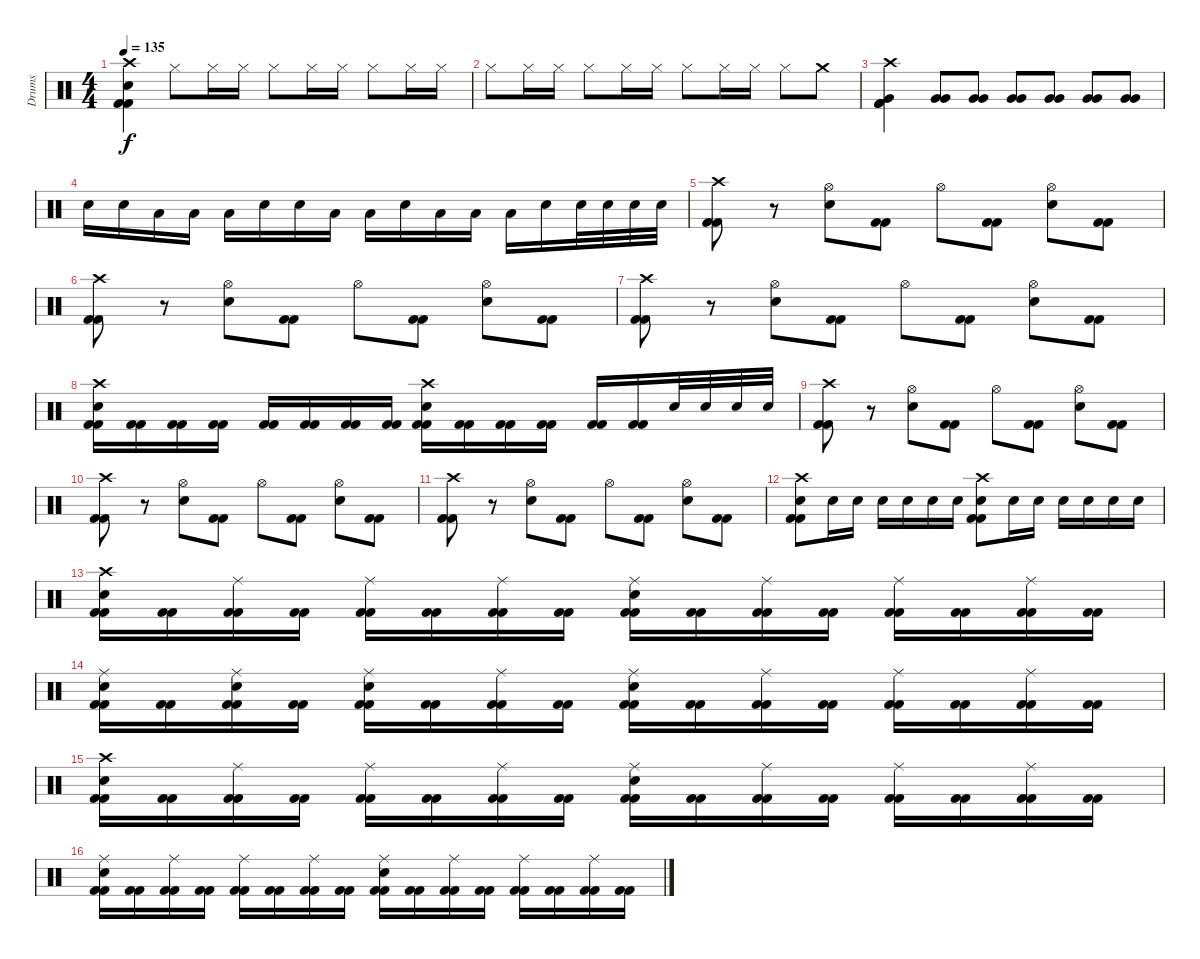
\track ("Drums" "Drums") {instrument percussion}
\staff {score}
\articulation defaults
\ts (4 4)
\tempo 135
\clef neutral
\ks c
("Crash high (hit)" "Electric Snare (hit)" "Kick (hit) 2" "Kick (hit) 2").4{dy f} "Hi-Hat (closed)".8 "Hi-Hat (closed)".16 "Hi-Hat (closed)".16 "Hi-Hat (closed)".8 "Hi-Hat (closed)".16 "Hi-Hat (closed)".16 "Hi-Hat (closed)".8 "Hi-Hat (closed)".16 "Hi-Hat (closed)".16 |
"Hi-Hat (closed)".8 "Hi-Hat (closed)".16 "Hi-Hat (closed)".16 "Hi-Hat (closed)".8 "Hi-Hat (closed)".16 "Hi-Hat (closed)".16 "Hi-Hat (closed)".8 "Hi-Hat (closed)".16 "Hi-Hat (closed)".16 "Hi-Hat (closed)".8 "Crash medium (hit)".8 |
("Crash high (hit)" "Very Low Tom (hit)" "Kick (hit) 2" "Kick (hit) 2").4 ("Very Low Tom (hit)" "Very Low Tom (hit)").8 ("Very Low Tom (hit)" "Very Low Tom (hit)").8 ("Very Low Tom (hit)" "Very Low Tom (hit)").8 ("Very Low Tom (hit)" "Very Low Tom (hit)").8 ("Very Low Tom (hit)" "Very Low Tom (hit)").8 ("Very Low Tom (hit)" "Very Low Tom (hit)").8 |
"Electric Snare (hit)".16 "Electric Snare (hit)".16 "Low Floor Tom (hit)".16 "Low Floor Tom (hit)".16 "Low Floor Tom (hit)".16 "Electric Snare (hit)".16 "Electric Snare (hit)".16 "Low Floor Tom (hit)".16 "Low Floor Tom (hit)".16 "Electric Snare (hit)".16 "Low Floor Tom (hit)".16 "Low Floor Tom (hit)".16 "Low Floor Tom (hit)".16 "Electric Snare (hit)".16 "Electric Snare (hit)".32 "Electric Snare (hit)".32 "Electric Snare (hit)".32 "Electric Snare (hit)".32 |
("Crash high (hit)" "Kick (hit) 2" "Kick (hit) 2").8 r.8 ("Hi-Hat (open)" "Electric Snare (hit)").8 ("Kick (hit) 2" "Kick (hit) 2").8 "Hi-Hat (open)".8 ("Kick (hit) 2" "Kick (hit) 2").8 ("Hi-Hat (open)" "Electric Snare (hit)").8 ("Kick (hit) 2" "Kick (hit) 2").8 |
("Crash high (hit)" "Kick (hit) 2" "Kick (hit) 2").8 r.8 ("Hi-Hat (open)" "Electric Snare (hit)").8 ("Kick (hit) 2" "Kick (hit) 2").8 "Hi-Hat (open)".8 ("Kick (hit) 2" "Kick (hit) 2").8 ("Hi-Hat (open)" "Electric Snare (hit)").8 ("Kick (hit) 2" "Kick (hit) 2").8 |
("Crash high (hit)" "Kick (hit) 2" "Kick (hit) 2").8 r.8 ("Hi-Hat (open)" "Electric Snare (hit)").8 ("Kick (hit) 2" "Kick (hit) 2").8 "Hi-Hat (open)".8 ("Kick (hit) 2" "Kick (hit) 2").8 ("Hi-Hat (open)" "Electric Snare (hit)").8 ("Kick (hit) 2" "Kick (hit) 2").8 |
("Crash high (hit)" "Electric Snare (hit)" "Kick (hit) 2" "Kick (hit) 2").16 ("Kick (hit) 2" "Kick (hit) 2").16 ("Kick (hit) 2" "Kick (hit) 2").16 ("Kick (hit) 2" "Kick (hit) 2").16 ("Kick (hit) 2" "Kick (hit) 2").16 ("Kick (hit) 2" "Kick (hit) 2").16 ("Kick (hit) 2" "Kick (hit) 2").16 ("Kick (hit) 2" "Kick (hit) 2").16 ("Crash high (hit)" "Electric Snare (hit)" "Kick (hit) 2" "Kick (hit) 2").16 ("Kick (hit) 2" "Kick (hit) 2").16 ("Kick (hit) 2" "Kick (hit) 2").16 ("Kick (hit) 2" "Kick (hit) 2").16 ("Kick (hit) 2" "Kick (hit) 2").16 ("Kick (hit) 2" "Kick (hit) 2").16 "Electric Snare (hit)".32 "Electric Snare (hit)".32 "Electric Snare (hit)".32 "Electric Snare (hit)".32 |
("Crash high (hit)" "Kick (hit) 2" "Kick (hit) 2").8 r.8 ("Hi-Hat (open)" "Electric Snare (hit)").8 ("Kick (hit) 2" "Kick (hit) 2").8 "Hi-Hat (open)".8 ("Kick (hit) 2" "Kick (hit) 2").8 ("Hi-Hat (open)" "Electric Snare (hit)").8 ("Kick (hit) 2" "Kick (hit) 2").8 |
("Crash high (hit)" "Kick (hit) 2" "Kick (hit) 2").8 r.8 ("Hi-Hat (open)" "Electric Snare (hit)").8 ("Kick (hit) 2" "Kick (hit) 2").8 "Hi-Hat (open)".8 ("Kick (hit) 2" "Kick (hit) 2").8 ("Hi-Hat (open)" "Electric Snare (hit)").8 ("Kick (hit) 2" "Kick (hit) 2").8 |
("Crash high (hit)" "Kick (hit) 2" "Kick (hit) 2").8 r.8 ("Hi-Hat (open)" "Electric Snare (hit)").8 ("Kick (hit) 2" "Kick (hit) 2").8 "Hi-Hat (open)".8 ("Kick (hit) 2" "Kick (hit) 2").8 ("Hi-Hat (open)" "Electric Snare (hit)").8 ("Kick (hit) 2" "Kick (hit) 2").8 |
("Crash high (hit)" "Kick (hit) 2" "Electric Snare (hit)" "Kick (hit) 2").8 "Electric Snare (hit)".16 "Electric Snare (hit)".16 "Electric Snare (hit)".16 "Electric Snare (hit)".16 "Electric Snare (hit)".16 "Electric Snare (hit)".16 ("Crash high (hit)" "Kick (hit) 2" "Electric Snare (hit)" "Kick (hit) 2").8 "Electric Snare (hit)".16 "Electric Snare (hit)".16 "Electric Snare (hit)".16 "Electric Snare (hit)".16 "Electric Snare (hit)".16 "Electric Snare (hit)".16 |
("Crash high (hit)" "Electric Snare (hit)" "Kick (hit) 2" "Kick (hit) 2").16 ("Kick (hit) 2" "Kick (hit) 2").16 ("Ride (middle)" "Kick (hit) 2" "Kick (hit) 2").16 ("Kick (hit) 2" "Kick (hit) 2").16 ("Ride (middle)" "Kick (hit) 2" "Kick (hit) 2").16 ("Kick (hit) 2" "Kick (hit) 2").16 ("Ride (middle)" "Kick (hit) 2" "Kick (hit) 2").16 ("Kick (hit) 2" "Kick (hit) 2").16 ("Ride (middle)" "Electric Snare (hit)" "Kick (hit) 2" "Kick (hit) 2").16 ("Kick (hit) 2" "Kick (hit) 2").16 ("Ride (middle)" "Kick (hit) 2" "Kick (hit) 2").16 ("Kick (hit) 2" "Kick (hit) 2").16 ("Ride (middle)" "Kick (hit) 2" "Kick (hit) 2").16 ("Kick (hit) 2" "Kick (hit) 2").16 ("Ride (middle)" "Kick (hit) 2" "Kick (hit) 2").16 ("Kick (hit) 2" "Kick (hit) 2").16 |
("Ride (middle)" "Electric Snare (hit)" "Kick (hit) 2" "Kick (hit) 2").16 ("Kick (hit) 2" "Kick (hit) 2").16 ("Ride (middle)" "Electric Snare (hit)" "Kick (hit) 2" "Kick (hit) 2").16 ("Kick (hit) 2" "Kick (hit) 2").16 ("Ride (middle)" "Electric Snare (hit)" "Kick (hit) 2" "Kick (hit) 2").16 ("Kick (hit) 2" "Kick (hit) 2").16 ("Ride (middle)" "Kick (hit) 2" "Kick (hit) 2").16 ("Kick (hit) 2" "Kick (hit) 2").16 ("Ride (middle)" "Electric Snare (hit)" "Kick (hit) 2" "Kick (hit) 2").16 ("Kick (hit) 2" "Kick (hit) 2").16 ("Ride (middle)" "Kick (hit) 2" "Kick (hit) 2").16 ("Kick (hit) 2" "Kick (hit) 2").16 ("Ride (middle)" "Kick (hit) 2" "Kick (hit) 2").16 ("Kick (hit) 2" "Kick (hit) 2").16 ("Ride (middle)" "Kick (hit) 2" "Kick (hit) 2").16 ("Kick (hit) 2" "Kick (hit) 2").16 |
("Crash high (hit)" "Electric Snare (hit)" "Kick (hit) 2" "Kick (hit) 2").16 ("Kick (hit) 2" "Kick (hit) 2").16 ("Ride (middle)" "Kick (hit) 2" "Kick (hit) 2").16 ("Kick (hit) 2" "Kick (hit) 2").16 ("Ride (middle)" "Kick (hit) 2" "Kick (hit) 2").16 ("Kick (hit) 2" "Kick (hit) 2").16 ("Ride (middle)" "Kick (hit) 2" "Kick (hit) 2").16 ("Kick (hit) 2" "Kick (hit) 2").16 ("Ride (middle)" "Electric Snare (hit)" "Kick (hit) 2" "Kick (hit) 2").16 ("Kick (hit) 2" "Kick (hit) 2").16 ("Ride (middle)" "Kick (hit) 2" "Kick (hit) 2").16 ("Kick (hit) 2" "Kick (hit) 2").16 ("Ride (middle)" "Kick (hit) 2" "Kick (hit) 2").16 ("Kick (hit) 2" "Kick (hit) 2").16 ("Ride (middle)" "Kick (hit) 2" "Kick (hit) 2").16 ("Kick (hit) 2" "Kick (hit) 2").16 |
("Ride (middle)" "Electric Snare (hit)" "Kick (hit) 2" "Kick (hit) 2").16 ("Kick (hit) 2" "Kick (hit) 2").16 ("Ride (middle)" "Kick (hit) 2" "Kick (hit) 2").16 ("Kick (hit) 2" "Kick (hit) 2").16 ("Ride (middle)" "Kick (hit) 2" "Kick (hit) 2").16 ("Kick (hit) 2" "Kick (hit) 2").16 ("Ride (middle)" "Kick (hit) 2" "Kick (hit) 2").16 ("Kick (hit) 2" "Kick (hit) 2").16 ("Ride (middle)" "Electric Snare (hit)" "Kick (hit) 2" "Kick (hit) 2").16 ("Kick (hit) 2" "Kick (hit) 2").16 ("Ride (middle)" "Kick (hit) 2" "Kick (hit) 2").16 ("Kick (hit) 2" "Kick (hit) 2").16 ("Ride (middle)" "Kick (hit) 2" "Kick (hit) 2").16 ("Kick (hit) 2" "Kick (hit) 2").16 ("Ride (middle)" "Kick (hit) 2" "Kick (hit) 2").16 ("Kick (hit) 2" "Kick (hit) 2").16
